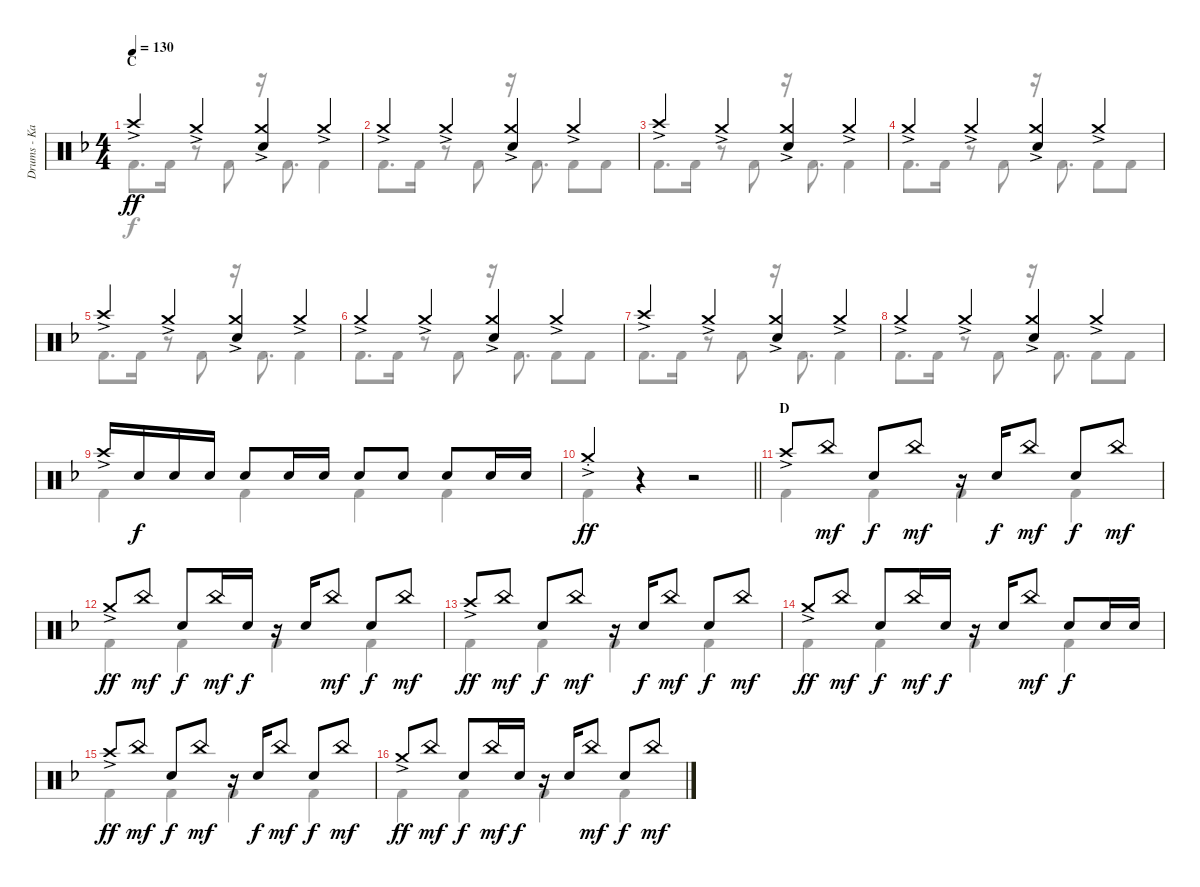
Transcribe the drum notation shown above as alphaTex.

\track ("Drums - Kai" "Drums - Ka") {instrument percussion}
\staff {score}
\articulation defaults
\voice
\ts (4 4)
\section ("" "C")
\tempo 130
\clef neutral
\ks f "Crash high (hit)"{ac}.4{dy ff} "Crash medium (hit)"{ac}.4
("Crash medium (hit)"{ac} "Electric Snare (hit)").4 "Crash medium (hit)"{ac}.4 |
"Crash medium (hit)"{ac}.4 "Crash medium (hit)"{ac}.4 ("Crash medium (hit)"{ac} "Electric Snare (hit)").4 "Crash medium (hit)"{ac}.4 |
"Crash high (hit)"{ac}.4 "Crash medium (hit)"{ac}.4 ("Crash medium (hit)"{ac} "Electric Snare (hit)").4 "Crash medium (hit)"{ac}.4 |
"Crash medium (hit)"{ac}.4 "Crash medium (hit)"{ac}.4 ("Crash medium (hit)"{ac} "Electric Snare (hit)").4 "Crash medium (hit)"{ac}.4 |
"Crash high (hit)"{ac}.4 "Crash medium (hit)"{ac}.4 ("Crash medium (hit)"{ac} "Electric Snare (hit)").4 "Crash medium (hit)"{ac}.4 |
"Crash medium (hit)"{ac}.4 "Crash medium (hit)"{ac}.4 ("Crash medium (hit)"{ac} "Electric Snare (hit)").4 "Crash medium (hit)"{ac}.4 |
"Crash high (hit)"{ac}.4 "Crash medium (hit)"{ac}.4 ("Crash medium (hit)"{ac} "Electric Snare (hit)").4 "Crash medium (hit)"{ac}.4 |
"Crash medium (hit)"{ac}.4 "Crash medium (hit)"{ac}.4 ("Crash medium (hit)"{ac} "Electric Snare (hit)").4 "Crash medium (hit)"{ac}.4 |
"Crash high (hit)"{ac}.16 "Electric Snare (hit)".16{dy f} "Electric Snare (hit)".16 "Electric Snare (hit)".16 "Electric Snare (hit)".8 "Electric Snare (hit)".16 "Electric Snare (hit)".16 "Electric Snare (hit)".8 "Electric Snare (hit)".8 "Electric Snare (hit)".8 "Electric Snare (hit)".16 "Electric Snare (hit)".16 |
\barLineRight lightlight "Crash medium (hit)"{ac st}.4{dy ff}
r.4 r.2 |
\section ("" "D")
"Crash high (hit)"{ac}.8 "China (hit)".8{dy mf} "Electric Snare (hit)".8{dy f} "China (hit)".8{dy mf} r.16 "Electric Snare (hit)".16{dy f} "China (hit)".8{dy mf} "Electric Snare (hit)".8{dy f} "China (hit)".8{dy mf} |
"Crash medium (hit)"{ac}.8{dy ff} "China (hit)".8{dy mf} "Electric Snare (hit)".8{dy f} "China (hit)".16{dy mf} "Electric Snare (hit)".16{dy f} r.16 "Electric Snare (hit)".16 "China (hit)".8{dy mf} "Electric Snare (hit)".8{dy f} "China (hit)".8{dy mf} |
"Crash high (hit)"{ac}.8{dy ff} "China (hit)".8{dy mf} "Electric Snare (hit)".8{dy f} "China (hit)".8{dy mf} r.16 "Electric Snare (hit)".16{dy f} "China (hit)".8{dy mf} "Electric Snare (hit)".8{dy f} "China (hit)".8{dy mf} |
"Crash medium (hit)"{ac}.8{dy ff} "China (hit)".8{dy mf} "Electric Snare (hit)".8{dy f} "China (hit)".16{dy mf} "Electric Snare (hit)".16{dy f} r.16 "Electric Snare (hit)".16 "China (hit)".8{dy mf} "Electric Snare (hit)".8{dy f} "Electric Snare (hit)".16 "Electric Snare (hit)".16 |
"Crash high (hit)"{ac}.8{dy ff} "China (hit)".8{dy mf} "Electric Snare (hit)".8{dy f} "China (hit)".8{dy mf} r.16 "Electric Snare (hit)".16{dy f} "China (hit)".8{dy mf} "Electric Snare (hit)".8{dy f} "China (hit)".8{dy mf} |
"Crash medium (hit)"{ac}.8{dy ff} "China (hit)".8{dy mf} "Electric Snare (hit)".8{dy f} "China (hit)".16{dy mf} "Electric Snare (hit)".16{dy f} r.16 "Electric Snare (hit)".16 "China (hit)".8{dy mf} "Electric Snare (hit)".8{dy f} "China (hit)".8{dy mf}
\voice
\clef neutral
\ottava regular
\simile none
\ks f "Kick (hit) 2".8{d dy f} "Kick (hit) 2".16
r.8 "Kick (hit) 2".8 r.16 "Kick (hit) 2".8{d} "Kick (hit) 2".4 |
"Kick (hit) 2".8{d} "Kick (hit) 2".16 r.8 "Kick (hit) 2".8 r.16 "Kick (hit) 2".8{d} "Kick (hit) 2".8 "Kick (hit) 2".8 |
"Kick (hit) 2".8{d} "Kick (hit) 2".16 r.8 "Kick (hit) 2".8 r.16 "Kick (hit) 2".8{d} "Kick (hit) 2".4 |
"Kick (hit) 2".8{d} "Kick (hit) 2".16 r.8 "Kick (hit) 2".8 r.16 "Kick (hit) 2".8{d} "Kick (hit) 2".8 "Kick (hit) 2".8 |
"Kick (hit) 2".8{d} "Kick (hit) 2".16 r.8 "Kick (hit) 2".8 r.16 "Kick (hit) 2".8{d} "Kick (hit) 2".4 |
"Kick (hit) 2".8{d} "Kick (hit) 2".16 r.8 "Kick (hit) 2".8 r.16 "Kick (hit) 2".8{d} "Kick (hit) 2".8 "Kick (hit) 2".8 |
"Kick (hit) 2".8{d} "Kick (hit) 2".16 r.8 "Kick (hit) 2".8 r.16 "Kick (hit) 2".8{d} "Kick (hit) 2".4 |
"Kick (hit) 2".8{d} "Kick (hit) 2".16 r.8 "Kick (hit) 2".8 r.16 "Kick (hit) 2".8{d} "Kick (hit) 2".8 "Kick (hit) 2".8 |
"Kick (hit) 2".4 "Kick (hit) 2".4 "Kick (hit) 2".4 "Kick (hit) 2".4 |
\barLineRight lightlight "Kick (hit) 2".4
r.4 r.2 |
"Kick (hit) 2".4 "Kick (hit) 2".4 "Kick (hit) 2".4 "Kick (hit) 2".4 |
"Kick (hit) 2".4 "Kick (hit) 2".4 "Kick (hit) 2".4 "Kick (hit) 2".4 |
"Kick (hit) 2".4 "Kick (hit) 2".4 "Kick (hit) 2".4 "Kick (hit) 2".4 |
"Kick (hit) 2".4 "Kick (hit) 2".4 "Kick (hit) 2".4 "Kick (hit) 2".4 |
"Kick (hit) 2".4 "Kick (hit) 2".4 "Kick (hit) 2".4 "Kick (hit) 2".4 |
"Kick (hit) 2".4 "Kick (hit) 2".4 "Kick (hit) 2".4 "Kick (hit) 2".4
